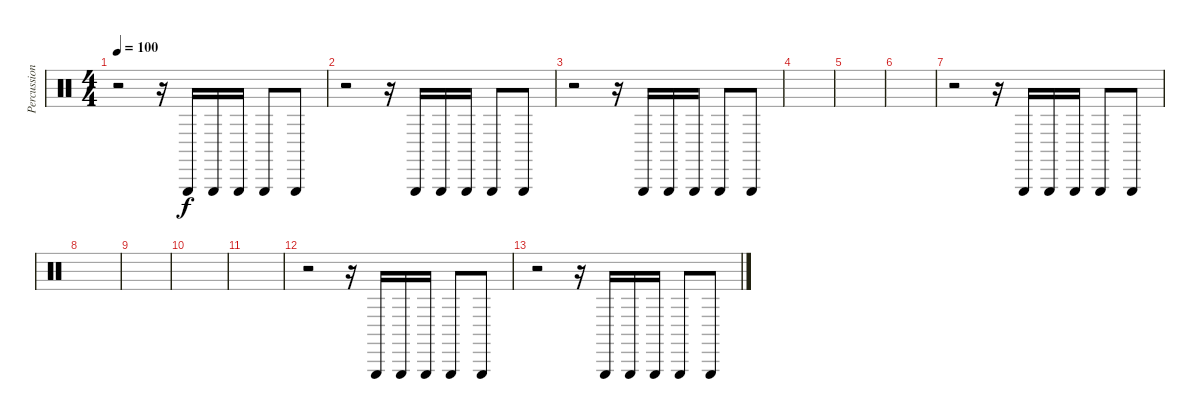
\track ("Percussion" "Percussion") {instrument percussion}
\staff
\articulation defaults
\ts (4 4)
\tempo 100
\clef neutral
\ks c
r.2{dy f} r.16 "Triangle (hit)".16 "Triangle (hit)".16 "Triangle (hit)".16 "Triangle (hit)".8 "Triangle (hit)".8 |
r.2 r.16 "Triangle (hit)".16 "Triangle (hit)".16 "Triangle (hit)".16 "Triangle (hit)".8 "Triangle (hit)".8 |
r.2 r.16 "Triangle (hit)".16 "Triangle (hit)".16 "Triangle (hit)".16 "Triangle (hit)".8 "Triangle (hit)".8 |
|
|
|
r.2 r.16 "Triangle (hit)".16 "Triangle (hit)".16 "Triangle (hit)".16 "Triangle (hit)".8 "Triangle (hit)".8 |
|
|
|
|
r.2 r.16 "Triangle (hit)".16 "Triangle (hit)".16 "Triangle (hit)".16 "Triangle (hit)".8 "Triangle (hit)".8 |
r.2 r.16 "Triangle (hit)".16 "Triangle (hit)".16 "Triangle (hit)".16 "Triangle (hit)".8 "Triangle (hit)".8
